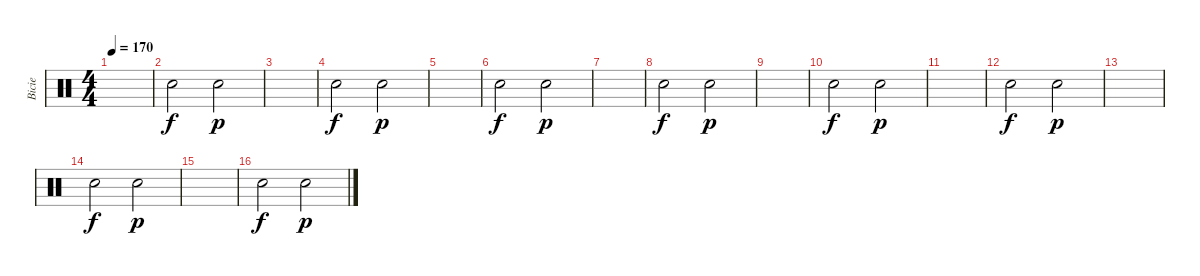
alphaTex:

\track ("Bicie" "Bicie") {instrument percussion}
\staff {score}
\articulation defaults
\ts (4 4)
\tempo 170
\clef neutral
\ks c
|
"Snare (hit) 2".2{dy f} "Snare (hit) 2".2{dy p} |
|
"Snare (hit) 2".2{dy f} "Snare (hit) 2".2{dy p} |
|
"Snare (hit) 2".2{dy f} "Snare (hit) 2".2{dy p} |
|
"Snare (hit) 2".2{dy f} "Snare (hit) 2".2{dy p} |
|
"Snare (hit) 2".2{dy f} "Snare (hit) 2".2{dy p} |
|
"Snare (hit) 2".2{dy f} "Snare (hit) 2".2{dy p} |
|
"Snare (hit) 2".2{dy f} "Snare (hit) 2".2{dy p} |
|
"Snare (hit) 2".2{dy f} "Snare (hit) 2".2{dy p}
